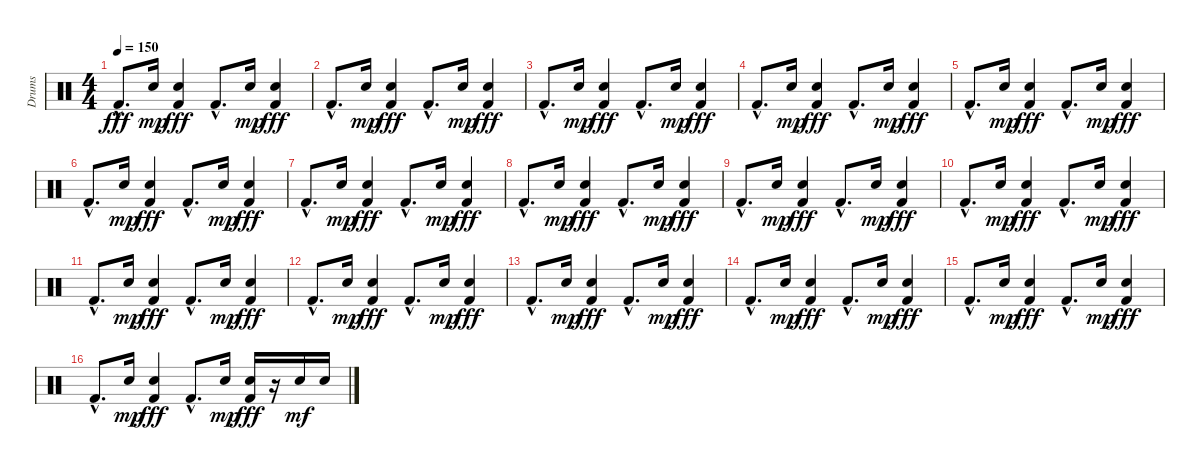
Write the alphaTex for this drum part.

\track ("Drums" "Drums") {instrument percussion}
\staff {score}
\articulation defaults
\ts (4 4)
\tempo 150
\clef neutral
\ks c "Kick (hit) 2"{hac}.8{d dy fff} "Snare (hit) 2".16{dy mp}
("Snare (hit) 2" "Kick (hit) 2").4{dy fff} "Kick (hit) 2"{hac}.8{d} "Snare (hit) 2".16{dy mp} ("Snare (hit) 2" "Kick (hit) 2").4{dy fff} |
"Kick (hit) 2"{hac}.8{d} "Snare (hit) 2".16{dy mp} ("Snare (hit) 2" "Kick (hit) 2").4{dy fff} "Kick (hit) 2"{hac}.8{d} "Snare (hit) 2".16{dy mp} ("Snare (hit) 2" "Kick (hit) 2").4{dy fff} |
"Kick (hit) 2"{hac}.8{d} "Snare (hit) 2".16{dy mp} ("Snare (hit) 2" "Kick (hit) 2").4{dy fff} "Kick (hit) 2"{hac}.8{d} "Snare (hit) 2".16{dy mp} ("Snare (hit) 2" "Kick (hit) 2").4{dy fff} |
"Kick (hit) 2"{hac}.8{d} "Snare (hit) 2".16{dy mp} ("Snare (hit) 2" "Kick (hit) 2").4{dy fff} "Kick (hit) 2"{hac}.8{d} "Snare (hit) 2".16{dy mp} ("Snare (hit) 2" "Kick (hit) 2").4{dy fff} |
"Kick (hit) 2"{hac}.8{d} "Snare (hit) 2".16{dy mp} ("Snare (hit) 2" "Kick (hit) 2").4{dy fff} "Kick (hit) 2"{hac}.8{d} "Snare (hit) 2".16{dy mp} ("Snare (hit) 2" "Kick (hit) 2").4{dy fff} |
"Kick (hit) 2"{hac}.8{d} "Snare (hit) 2".16{dy mp} ("Snare (hit) 2" "Kick (hit) 2").4{dy fff} "Kick (hit) 2"{hac}.8{d} "Snare (hit) 2".16{dy mp} ("Snare (hit) 2" "Kick (hit) 2").4{dy fff} |
"Kick (hit) 2"{hac}.8{d} "Snare (hit) 2".16{dy mp} ("Snare (hit) 2" "Kick (hit) 2").4{dy fff} "Kick (hit) 2"{hac}.8{d} "Snare (hit) 2".16{dy mp} ("Snare (hit) 2" "Kick (hit) 2").4{dy fff} |
"Kick (hit) 2"{hac}.8{d} "Snare (hit) 2".16{dy mp} ("Snare (hit) 2" "Kick (hit) 2").4{dy fff} "Kick (hit) 2"{hac}.8{d} "Snare (hit) 2".16{dy mp} ("Snare (hit) 2" "Kick (hit) 2").4{dy fff} |
"Kick (hit) 2"{hac}.8{d} "Snare (hit) 2".16{dy mp} ("Snare (hit) 2" "Kick (hit) 2").4{dy fff} "Kick (hit) 2"{hac}.8{d} "Snare (hit) 2".16{dy mp} ("Snare (hit) 2" "Kick (hit) 2").4{dy fff} |
"Kick (hit) 2"{hac}.8{d} "Snare (hit) 2".16{dy mp} ("Snare (hit) 2" "Kick (hit) 2").4{dy fff} "Kick (hit) 2"{hac}.8{d} "Snare (hit) 2".16{dy mp} ("Snare (hit) 2" "Kick (hit) 2").4{dy fff} |
"Kick (hit) 2"{hac}.8{d} "Snare (hit) 2".16{dy mp} ("Snare (hit) 2" "Kick (hit) 2").4{dy fff} "Kick (hit) 2"{hac}.8{d} "Snare (hit) 2".16{dy mp} ("Snare (hit) 2" "Kick (hit) 2").4{dy fff} |
"Kick (hit) 2"{hac}.8{d} "Snare (hit) 2".16{dy mp} ("Snare (hit) 2" "Kick (hit) 2").4{dy fff} "Kick (hit) 2"{hac}.8{d} "Snare (hit) 2".16{dy mp} ("Snare (hit) 2" "Kick (hit) 2").4{dy fff} |
"Kick (hit) 2"{hac}.8{d} "Snare (hit) 2".16{dy mp} ("Snare (hit) 2" "Kick (hit) 2").4{dy fff} "Kick (hit) 2"{hac}.8{d} "Snare (hit) 2".16{dy mp} ("Snare (hit) 2" "Kick (hit) 2").4{dy fff} |
"Kick (hit) 2"{hac}.8{d} "Snare (hit) 2".16{dy mp} ("Snare (hit) 2" "Kick (hit) 2").4{dy fff} "Kick (hit) 2"{hac}.8{d} "Snare (hit) 2".16{dy mp} ("Snare (hit) 2" "Kick (hit) 2").4{dy fff} |
"Kick (hit) 2"{hac}.8{d} "Snare (hit) 2".16{dy mp} ("Snare (hit) 2" "Kick (hit) 2").4{dy fff} "Kick (hit) 2"{hac}.8{d} "Snare (hit) 2".16{dy mp} ("Snare (hit) 2" "Kick (hit) 2").4{dy fff} |
"Kick (hit) 2"{hac}.8{d} "Snare (hit) 2".16{dy mp} ("Snare (hit) 2" "Kick (hit) 2").4{dy fff} "Kick (hit) 2"{hac}.8{d} "Snare (hit) 2".16{dy mp} ("Snare (hit) 2" "Kick (hit) 2").16{dy fff} r.16 "Snare (hit) 2".16{dy mf} "Snare (hit) 2".16
